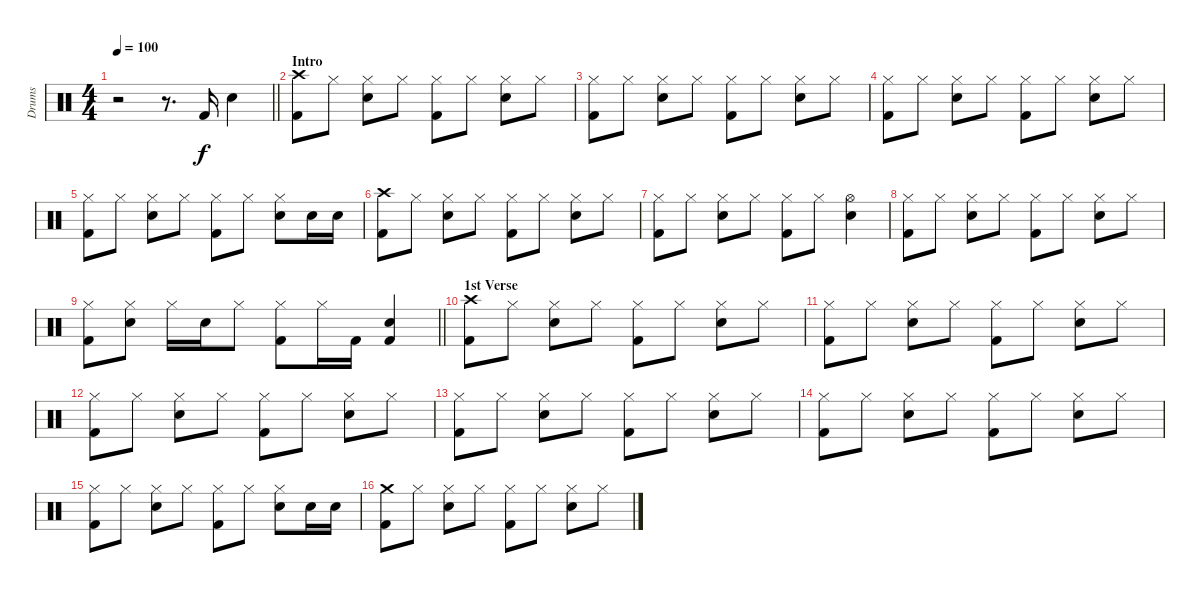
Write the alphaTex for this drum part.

\track ("Drums" "Drums") {instrument percussion}
\staff {score}
\articulation defaults
\ts (4 4)
\tempo 100
\clef neutral
\barLineRight lightlight
\ks c
r.2{dy f} r.8{d} "Kick (hit) 2".16 "Snare (hit) 2".4 |
\section ("" "Intro")
("Crash high (hit)" "Kick (hit) 2").8 "Hi-Hat (closed)".8 ("Hi-Hat (closed)" "Snare (hit) 2").8 "Hi-Hat (closed)".8 ("Hi-Hat (closed)" "Kick (hit) 2").8 "Hi-Hat (closed)".8 ("Hi-Hat (closed)" "Snare (hit) 2").8 "Hi-Hat (closed)".8 |
("Hi-Hat (closed)" "Kick (hit) 2").8 "Hi-Hat (closed)".8 ("Hi-Hat (closed)" "Snare (hit) 2").8 "Hi-Hat (closed)".8 ("Hi-Hat (closed)" "Kick (hit) 2").8 "Hi-Hat (closed)".8 ("Hi-Hat (closed)" "Snare (hit) 2").8 "Hi-Hat (closed)".8 |
("Hi-Hat (closed)" "Kick (hit) 2").8 "Hi-Hat (closed)".8 ("Hi-Hat (closed)" "Snare (hit) 2").8 "Hi-Hat (closed)".8 ("Hi-Hat (closed)" "Kick (hit) 2").8 "Hi-Hat (closed)".8 ("Hi-Hat (closed)" "Snare (hit) 2").8 "Hi-Hat (closed)".8 |
("Hi-Hat (closed)" "Kick (hit) 2").8 "Hi-Hat (closed)".8 ("Hi-Hat (closed)" "Snare (hit) 2").8 "Hi-Hat (closed)".8 ("Hi-Hat (closed)" "Kick (hit) 2").8 "Hi-Hat (closed)".8 ("Hi-Hat (closed)" "Snare (hit) 2").8 "Snare (hit) 2".16 "Snare (hit) 2".16 |
("Crash high (hit)" "Kick (hit) 2").8 "Hi-Hat (closed)".8 ("Hi-Hat (closed)" "Snare (hit) 2").8 "Hi-Hat (closed)".8 ("Hi-Hat (closed)" "Kick (hit) 2").8 "Hi-Hat (closed)".8 ("Hi-Hat (closed)" "Snare (hit) 2").8 "Hi-Hat (closed)".8 |
("Hi-Hat (closed)" "Kick (hit) 2").8 "Hi-Hat (closed)".8 ("Hi-Hat (closed)" "Snare (hit) 2").8 "Hi-Hat (closed)".8 ("Hi-Hat (closed)" "Kick (hit) 2").8 "Hi-Hat (closed)".8 ("Hi-Hat (open)" "Snare (hit) 2").4 |
("Hi-Hat (closed)" "Kick (hit) 2").8 "Hi-Hat (closed)".8 ("Hi-Hat (closed)" "Snare (hit) 2").8 "Hi-Hat (closed)".8 ("Hi-Hat (closed)" "Kick (hit) 2").8 "Hi-Hat (closed)".8 ("Hi-Hat (closed)" "Snare (hit) 2").8 "Hi-Hat (closed)".8 |
\barLineRight lightlight
("Hi-Hat (closed)" "Kick (hit) 2").8 ("Hi-Hat (closed)" "Snare (hit) 2").8 "Hi-Hat (closed)".16 "Snare (hit) 2".16 "Hi-Hat (closed)".8 ("Hi-Hat (closed)" "Kick (hit) 2").8 "Hi-Hat (closed)".16 "Kick (hit) 2".16 ("Snare (hit) 2" "Kick (hit) 2").4 |
\section ("" "1st Verse")
("Crash high (hit)" "Kick (hit) 2").8 "Hi-Hat (closed)".8 ("Hi-Hat (closed)" "Snare (hit) 2").8 "Hi-Hat (closed)".8 ("Hi-Hat (closed)" "Kick (hit) 2").8 "Hi-Hat (closed)".8 ("Hi-Hat (closed)" "Snare (hit) 2").8 "Hi-Hat (closed)".8 |
("Hi-Hat (closed)" "Kick (hit) 2").8 "Hi-Hat (closed)".8 ("Hi-Hat (closed)" "Snare (hit) 2").8 "Hi-Hat (closed)".8 ("Hi-Hat (closed)" "Kick (hit) 2").8 "Hi-Hat (closed)".8 ("Hi-Hat (closed)" "Snare (hit) 2").8 "Hi-Hat (closed)".8 |
("Hi-Hat (closed)" "Kick (hit) 2").8 "Hi-Hat (closed)".8 ("Hi-Hat (closed)" "Snare (hit) 2").8 "Hi-Hat (closed)".8 ("Hi-Hat (closed)" "Kick (hit) 2").8 "Hi-Hat (closed)".8 ("Hi-Hat (closed)" "Snare (hit) 2").8 "Hi-Hat (closed)".8 |
("Hi-Hat (closed)" "Kick (hit) 2").8 "Hi-Hat (closed)".8 ("Hi-Hat (closed)" "Snare (hit) 2").8 "Hi-Hat (closed)".8 ("Hi-Hat (closed)" "Kick (hit) 2").8 "Hi-Hat (closed)".8 ("Hi-Hat (closed)" "Snare (hit) 2").8 "Hi-Hat (closed)".8 |
("Hi-Hat (closed)" "Kick (hit) 2").8 "Hi-Hat (closed)".8 ("Hi-Hat (closed)" "Snare (hit) 2").8 "Hi-Hat (closed)".8 ("Hi-Hat (closed)" "Kick (hit) 2").8 "Hi-Hat (closed)".8 ("Hi-Hat (closed)" "Snare (hit) 2").8 "Hi-Hat (closed)".8 |
("Hi-Hat (closed)" "Kick (hit) 2").8 "Hi-Hat (closed)".8 ("Hi-Hat (closed)" "Snare (hit) 2").8 "Hi-Hat (closed)".8 ("Hi-Hat (closed)" "Kick (hit) 2").8 "Hi-Hat (closed)".8 ("Hi-Hat (closed)" "Snare (hit) 2").8 "Snare (hit) 2".16 "Snare (hit) 2".16 |
("Crash medium (hit)" "Kick (hit) 2").8 "Hi-Hat (closed)".8 ("Hi-Hat (closed)" "Snare (hit) 2").8 "Hi-Hat (closed)".8 ("Hi-Hat (closed)" "Kick (hit) 2").8 "Hi-Hat (closed)".8 ("Hi-Hat (closed)" "Snare (hit) 2").8 "Hi-Hat (closed)".8
